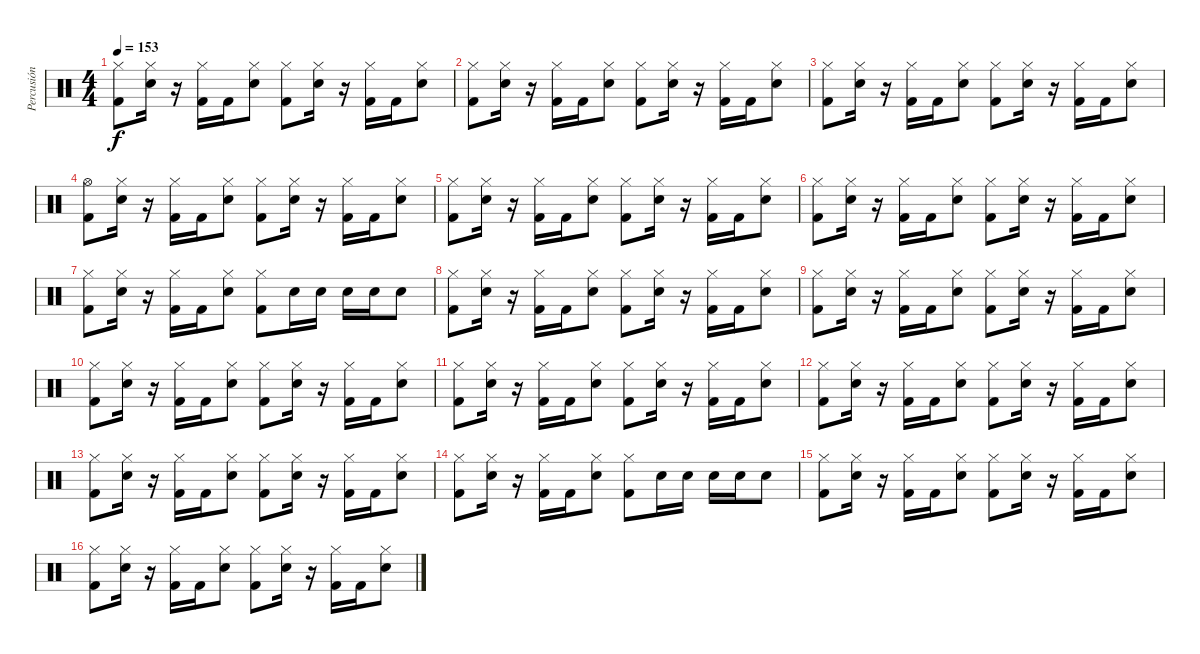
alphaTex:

\track ("Percusión" "Percusión") {instrument percussion}
\staff {score}
\articulation defaults
\ts (4 4)
\tempo 153
\clef neutral
\ks c
("Hi-Hat (closed)" "Kick (hit) 2").8{dy f} ("Hi-Hat (closed)" "Electric Snare (hit)").16 r.16 ("Hi-Hat (closed)" "Kick (hit) 2").16 "Kick (hit) 2".16 ("Hi-Hat (closed)" "Electric Snare (hit)").8 ("Hi-Hat (closed)" "Kick (hit) 2").8 ("Hi-Hat (closed)" "Electric Snare (hit)").16 r.16 ("Hi-Hat (closed)" "Kick (hit) 2").16 "Kick (hit) 2".16 ("Hi-Hat (closed)" "Electric Snare (hit)").8 |
("Hi-Hat (closed)" "Kick (hit) 2").8 ("Hi-Hat (closed)" "Electric Snare (hit)").16 r.16 ("Hi-Hat (closed)" "Kick (hit) 2").16 "Kick (hit) 2".16 ("Hi-Hat (closed)" "Electric Snare (hit)").8 ("Hi-Hat (closed)" "Kick (hit) 2").8 ("Hi-Hat (closed)" "Electric Snare (hit)").16 r.16 ("Hi-Hat (closed)" "Kick (hit) 2").16 "Kick (hit) 2".16 ("Hi-Hat (closed)" "Electric Snare (hit)").8 |
("Hi-Hat (closed)" "Kick (hit) 2").8 ("Hi-Hat (closed)" "Electric Snare (hit)").16 r.16 ("Hi-Hat (closed)" "Kick (hit) 2").16 "Kick (hit) 2".16 ("Hi-Hat (closed)" "Electric Snare (hit)").8 ("Hi-Hat (closed)" "Kick (hit) 2").8 ("Hi-Hat (closed)" "Electric Snare (hit)").16 r.16 ("Hi-Hat (closed)" "Kick (hit) 2").16 "Kick (hit) 2".16 ("Hi-Hat (closed)" "Electric Snare (hit)").8 |
("Hi-Hat (open)" "Kick (hit) 2").8 ("Hi-Hat (closed)" "Electric Snare (hit)").16 r.16 ("Hi-Hat (closed)" "Kick (hit) 2").16 "Kick (hit) 2".16 ("Hi-Hat (closed)" "Electric Snare (hit)").8 ("Hi-Hat (closed)" "Kick (hit) 2").8 ("Hi-Hat (closed)" "Electric Snare (hit)").16 r.16 ("Hi-Hat (closed)" "Kick (hit) 2").16 "Kick (hit) 2".16 ("Hi-Hat (closed)" "Electric Snare (hit)").8 |
("Hi-Hat (closed)" "Kick (hit) 2").8 ("Hi-Hat (closed)" "Electric Snare (hit)").16 r.16 ("Hi-Hat (closed)" "Kick (hit) 2").16 "Kick (hit) 2".16 ("Hi-Hat (closed)" "Electric Snare (hit)").8 ("Hi-Hat (closed)" "Kick (hit) 2").8 ("Hi-Hat (closed)" "Electric Snare (hit)").16 r.16 ("Hi-Hat (closed)" "Kick (hit) 2").16 "Kick (hit) 2".16 ("Hi-Hat (closed)" "Electric Snare (hit)").8 |
("Hi-Hat (closed)" "Kick (hit) 2").8 ("Hi-Hat (closed)" "Electric Snare (hit)").16 r.16 ("Hi-Hat (closed)" "Kick (hit) 2").16 "Kick (hit) 2".16 ("Hi-Hat (closed)" "Electric Snare (hit)").8 ("Hi-Hat (closed)" "Kick (hit) 2").8 ("Hi-Hat (closed)" "Electric Snare (hit)").16 r.16 ("Hi-Hat (closed)" "Kick (hit) 2").16 "Kick (hit) 2".16 ("Hi-Hat (closed)" "Electric Snare (hit)").8 |
("Hi-Hat (closed)" "Kick (hit) 2").8 ("Hi-Hat (closed)" "Electric Snare (hit)").16 r.16 ("Hi-Hat (closed)" "Kick (hit) 2").16 "Kick (hit) 2".16 ("Hi-Hat (closed)" "Electric Snare (hit)").8 ("Hi-Hat (closed)" "Kick (hit) 2").8 "Electric Snare (hit)".16 "Electric Snare (hit)".16 "Electric Snare (hit)".16 "Electric Snare (hit)".16 "Electric Snare (hit)".8 |
("Hi-Hat (closed)" "Kick (hit) 2").8 ("Hi-Hat (closed)" "Electric Snare (hit)").16 r.16 ("Hi-Hat (closed)" "Kick (hit) 2").16 "Kick (hit) 2".16 ("Hi-Hat (closed)" "Electric Snare (hit)").8 ("Hi-Hat (closed)" "Kick (hit) 2").8 ("Hi-Hat (closed)" "Electric Snare (hit)").16 r.16 ("Hi-Hat (closed)" "Kick (hit) 2").16 "Kick (hit) 2".16 ("Hi-Hat (closed)" "Electric Snare (hit)").8 |
("Hi-Hat (closed)" "Kick (hit) 2").8 ("Hi-Hat (closed)" "Electric Snare (hit)").16 r.16 ("Hi-Hat (closed)" "Kick (hit) 2").16 "Kick (hit) 2".16 ("Hi-Hat (closed)" "Electric Snare (hit)").8 ("Hi-Hat (closed)" "Kick (hit) 2").8 ("Hi-Hat (closed)" "Electric Snare (hit)").16 r.16 ("Hi-Hat (closed)" "Kick (hit) 2").16 "Kick (hit) 2".16 ("Hi-Hat (closed)" "Electric Snare (hit)").8 |
("Hi-Hat (closed)" "Kick (hit) 2").8 ("Hi-Hat (closed)" "Electric Snare (hit)").16 r.16 ("Hi-Hat (closed)" "Kick (hit) 2").16 "Kick (hit) 2".16 ("Hi-Hat (closed)" "Electric Snare (hit)").8 ("Hi-Hat (closed)" "Kick (hit) 2").8 ("Hi-Hat (closed)" "Electric Snare (hit)").16 r.16 ("Hi-Hat (closed)" "Kick (hit) 2").16 "Kick (hit) 2".16 ("Hi-Hat (closed)" "Electric Snare (hit)").8 |
("Hi-Hat (closed)" "Kick (hit) 2").8 ("Hi-Hat (closed)" "Electric Snare (hit)").16 r.16 ("Hi-Hat (closed)" "Kick (hit) 2").16 "Kick (hit) 2".16 ("Hi-Hat (closed)" "Electric Snare (hit)").8 ("Hi-Hat (closed)" "Kick (hit) 2").8 ("Hi-Hat (closed)" "Electric Snare (hit)").16 r.16 ("Hi-Hat (closed)" "Kick (hit) 2").16 "Kick (hit) 2".16 ("Hi-Hat (closed)" "Electric Snare (hit)").8 |
("Hi-Hat (closed)" "Kick (hit) 2").8 ("Hi-Hat (closed)" "Electric Snare (hit)").16 r.16 ("Hi-Hat (closed)" "Kick (hit) 2").16 "Kick (hit) 2".16 ("Hi-Hat (closed)" "Electric Snare (hit)").8 ("Hi-Hat (closed)" "Kick (hit) 2").8 ("Hi-Hat (closed)" "Electric Snare (hit)").16 r.16 ("Hi-Hat (closed)" "Kick (hit) 2").16 "Kick (hit) 2".16 ("Hi-Hat (closed)" "Electric Snare (hit)").8 |
("Hi-Hat (closed)" "Kick (hit) 2").8 ("Hi-Hat (closed)" "Electric Snare (hit)").16 r.16 ("Hi-Hat (closed)" "Kick (hit) 2").16 "Kick (hit) 2".16 ("Hi-Hat (closed)" "Electric Snare (hit)").8 ("Hi-Hat (closed)" "Kick (hit) 2").8 ("Hi-Hat (closed)" "Electric Snare (hit)").16 r.16 ("Hi-Hat (closed)" "Kick (hit) 2").16 "Kick (hit) 2".16 ("Hi-Hat (closed)" "Electric Snare (hit)").8 |
("Hi-Hat (closed)" "Kick (hit) 2").8 ("Hi-Hat (closed)" "Electric Snare (hit)").16 r.16 ("Hi-Hat (closed)" "Kick (hit) 2").16 "Kick (hit) 2".16 ("Hi-Hat (closed)" "Electric Snare (hit)").8 ("Hi-Hat (closed)" "Kick (hit) 2").8 "Electric Snare (hit)".16 "Electric Snare (hit)".16 "Electric Snare (hit)".16 "Electric Snare (hit)".16 "Electric Snare (hit)".8 |
("Hi-Hat (closed)" "Kick (hit) 2").8 ("Hi-Hat (closed)" "Electric Snare (hit)").16 r.16 ("Hi-Hat (closed)" "Kick (hit) 2").16 "Kick (hit) 2".16 ("Hi-Hat (closed)" "Electric Snare (hit)").8 ("Hi-Hat (closed)" "Kick (hit) 2").8 ("Hi-Hat (closed)" "Electric Snare (hit)").16 r.16 ("Hi-Hat (closed)" "Kick (hit) 2").16 "Kick (hit) 2".16 ("Hi-Hat (closed)" "Electric Snare (hit)").8 |
("Hi-Hat (closed)" "Kick (hit) 2").8 ("Hi-Hat (closed)" "Electric Snare (hit)").16 r.16 ("Hi-Hat (closed)" "Kick (hit) 2").16 "Kick (hit) 2".16 ("Hi-Hat (closed)" "Electric Snare (hit)").8 ("Hi-Hat (closed)" "Kick (hit) 2").8 ("Hi-Hat (closed)" "Electric Snare (hit)").16 r.16 ("Hi-Hat (closed)" "Kick (hit) 2").16 "Kick (hit) 2".16 ("Hi-Hat (closed)" "Electric Snare (hit)").8
